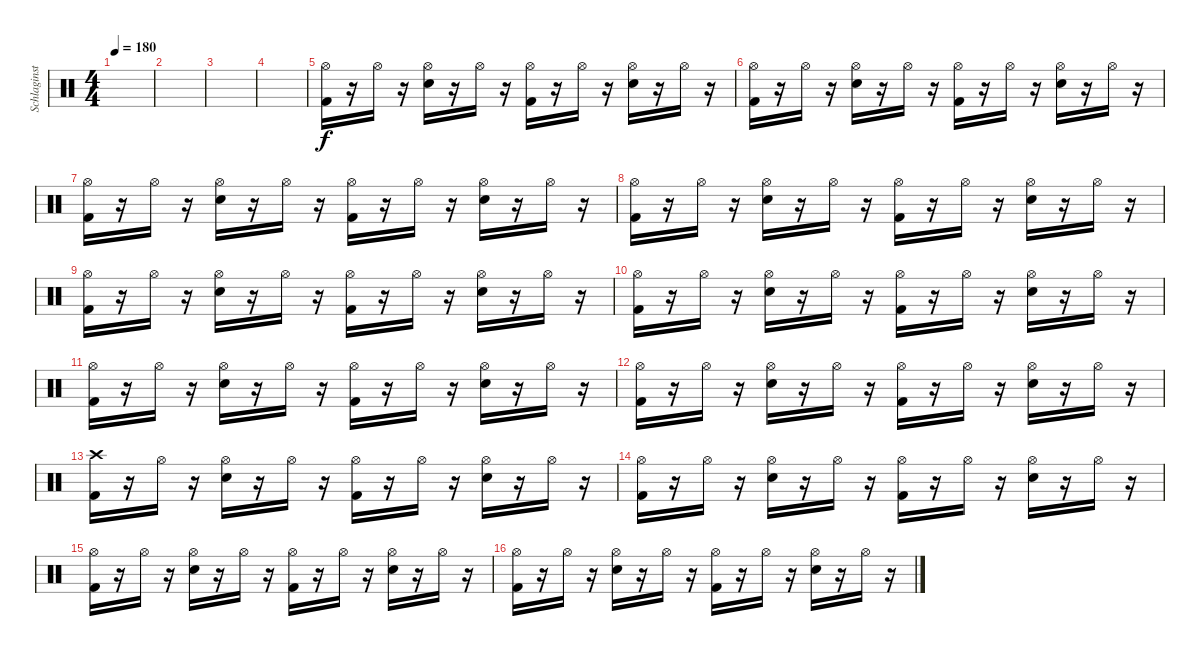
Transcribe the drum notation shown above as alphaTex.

\track ("Schlaginstrumente - Auswahl" "Schlaginst") {instrument percussion}
\staff {score}
\articulation defaults
\ts (4 4)
\tempo 180
\clef neutral
\ks c
|
|
|
|
("Hi-Hat (open)" "Kick (hit) 2").16 r.16 "Hi-Hat (open)".16 r.16 ("Hi-Hat (open)" "Snare (hit) 2").16 r.16 "Hi-Hat (open)".16 r.16 ("Hi-Hat (open)" "Kick (hit) 2").16 r.16 "Hi-Hat (open)".16 r.16 ("Hi-Hat (open)" "Snare (hit) 2").16 r.16 "Hi-Hat (open)".16 r.16 |
("Hi-Hat (open)" "Kick (hit) 2").16 r.16 "Hi-Hat (open)".16 r.16 ("Hi-Hat (open)" "Snare (hit) 2").16 r.16 "Hi-Hat (open)".16 r.16 ("Hi-Hat (open)" "Kick (hit) 2").16 r.16 "Hi-Hat (open)".16 r.16 ("Hi-Hat (open)" "Snare (hit) 2").16 r.16 "Hi-Hat (open)".16 r.16 |
("Hi-Hat (open)" "Kick (hit) 2").16 r.16 "Hi-Hat (open)".16 r.16 ("Hi-Hat (open)" "Snare (hit) 2").16 r.16 "Hi-Hat (open)".16 r.16 ("Hi-Hat (open)" "Kick (hit) 2").16 r.16 "Hi-Hat (open)".16 r.16 ("Hi-Hat (open)" "Snare (hit) 2").16 r.16 "Hi-Hat (open)".16 r.16 |
("Hi-Hat (open)" "Kick (hit) 2").16 r.16 "Hi-Hat (open)".16 r.16 ("Hi-Hat (open)" "Snare (hit) 2").16 r.16 "Hi-Hat (open)".16 r.16 ("Hi-Hat (open)" "Kick (hit) 2").16 r.16 "Hi-Hat (open)".16 r.16 ("Hi-Hat (open)" "Snare (hit) 2").16 r.16 "Hi-Hat (open)".16 r.16 |
("Hi-Hat (open)" "Kick (hit) 2").16 r.16 "Hi-Hat (open)".16 r.16 ("Hi-Hat (open)" "Snare (hit) 2").16 r.16 "Hi-Hat (open)".16 r.16 ("Hi-Hat (open)" "Kick (hit) 2").16 r.16 "Hi-Hat (open)".16 r.16 ("Hi-Hat (open)" "Snare (hit) 2").16 r.16 "Hi-Hat (open)".16 r.16 |
("Hi-Hat (open)" "Kick (hit) 2").16 r.16 "Hi-Hat (open)".16 r.16 ("Hi-Hat (open)" "Snare (hit) 2").16 r.16 "Hi-Hat (open)".16 r.16 ("Hi-Hat (open)" "Kick (hit) 2").16 r.16 "Hi-Hat (open)".16 r.16 ("Hi-Hat (open)" "Snare (hit) 2").16 r.16 "Hi-Hat (open)".16 r.16 |
("Hi-Hat (open)" "Kick (hit) 2").16 r.16 "Hi-Hat (open)".16 r.16 ("Hi-Hat (open)" "Snare (hit) 2").16 r.16 "Hi-Hat (open)".16 r.16 ("Hi-Hat (open)" "Kick (hit) 2").16 r.16 "Hi-Hat (open)".16 r.16 ("Hi-Hat (open)" "Snare (hit) 2").16 r.16 "Hi-Hat (open)".16 r.16 |
("Hi-Hat (open)" "Kick (hit) 2").16 r.16 "Hi-Hat (open)".16 r.16 ("Hi-Hat (open)" "Snare (hit) 2").16 r.16 "Hi-Hat (open)".16 r.16 ("Hi-Hat (open)" "Kick (hit) 2").16 r.16 "Hi-Hat (open)".16 r.16 ("Hi-Hat (open)" "Snare (hit) 2").16 r.16 "Hi-Hat (open)".16 r.16 |
("Crash high (hit)" "Kick (hit) 2").16 r.16 "Hi-Hat (open)".16 r.16 ("Hi-Hat (open)" "Snare (hit) 2").16 r.16 "Hi-Hat (open)".16 r.16 ("Hi-Hat (open)" "Kick (hit) 2").16 r.16 "Hi-Hat (open)".16 r.16 ("Hi-Hat (open)" "Snare (hit) 2").16 r.16 "Hi-Hat (open)".16 r.16 |
("Hi-Hat (open)" "Kick (hit) 2").16 r.16 "Hi-Hat (open)".16 r.16 ("Hi-Hat (open)" "Snare (hit) 2").16 r.16 "Hi-Hat (open)".16 r.16 ("Hi-Hat (open)" "Kick (hit) 2").16 r.16 "Hi-Hat (open)".16 r.16 ("Hi-Hat (open)" "Snare (hit) 2").16 r.16 "Hi-Hat (open)".16 r.16 |
("Hi-Hat (open)" "Kick (hit) 2").16 r.16 "Hi-Hat (open)".16 r.16 ("Hi-Hat (open)" "Snare (hit) 2").16 r.16 "Hi-Hat (open)".16 r.16 ("Hi-Hat (open)" "Kick (hit) 2").16 r.16 "Hi-Hat (open)".16 r.16 ("Hi-Hat (open)" "Snare (hit) 2").16 r.16 "Hi-Hat (open)".16 r.16 |
("Hi-Hat (open)" "Kick (hit) 2").16 r.16 "Hi-Hat (open)".16 r.16 ("Hi-Hat (open)" "Snare (hit) 2").16 r.16 "Hi-Hat (open)".16 r.16 ("Hi-Hat (open)" "Kick (hit) 2").16 r.16 "Hi-Hat (open)".16 r.16 ("Hi-Hat (open)" "Snare (hit) 2").16 r.16 "Hi-Hat (open)".16 r.16
